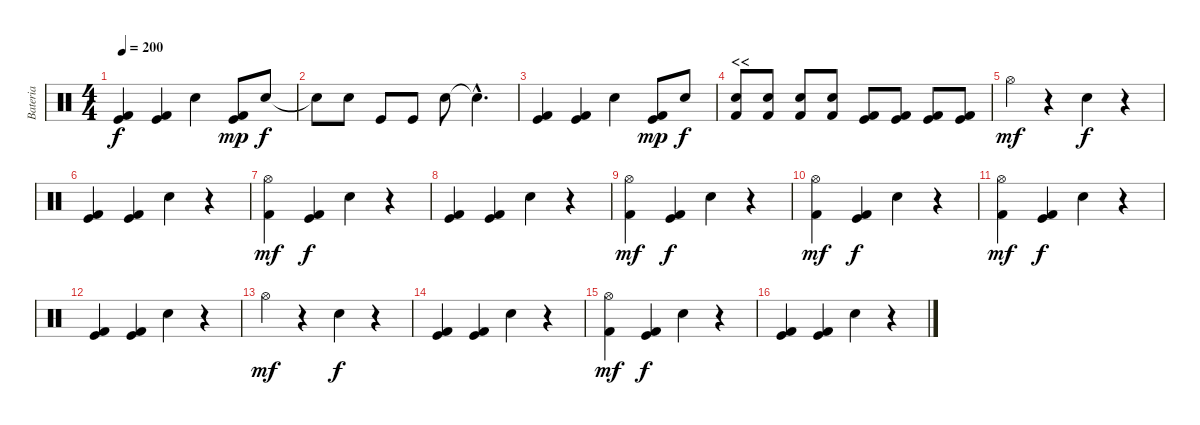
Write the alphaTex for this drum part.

\track ("Bateria" "Bateria") {instrument percussion}
\staff {score}
\articulation defaults
\ts (4 4)
\tempo 200
\clef neutral
\ks c
("Kick (hit) 2" "Kick (hit)").4{dy f} ("Kick (hit) 2" "Kick (hit)").4 "Electric Snare (hit)".4 ("Kick (hit)" "Kick (hit) 2").8{dy mp} "Electric Snare (hit)".8{dy f} |
"Snare (hit)"{t}.8 "Electric Snare (hit)".8 "Kick (hit)".8 "Kick (hit)".8 "Electric Snare (hit)".8 "Snare (hit)"{hac t}.4{d} |
("Kick (hit) 2" "Kick (hit)").4 ("Kick (hit) 2" "Kick (hit)").4 "Electric Snare (hit)".4 ("Kick (hit)" "Kick (hit) 2").8{dy mp} "Electric Snare (hit)".8{dy f} |
\section ("" "<<")
("Electric Snare (hit)" "Kick (hit) 2").8 ("Electric Snare (hit)" "Kick (hit) 2").8 ("Electric Snare (hit)" "Kick (hit) 2").8 ("Electric Snare (hit)" "Kick (hit) 2").8 ("Kick (hit)" "Kick (hit) 2").8 ("Kick (hit)" "Kick (hit) 2").8 ("Kick (hit)" "Kick (hit) 2").8 ("Kick (hit)" "Kick (hit) 2").8 |
"Hi-Hat (open)".4{dy mf} r.4 "Electric Snare (hit)".4{dy f} r.4 |
("Kick (hit)" "Kick (hit) 2").4 ("Kick (hit)" "Kick (hit) 2").4 "Electric Snare (hit)".4 r.4 |
("Hi-Hat (open)" "Kick (hit) 2").4{dy mf} ("Kick (hit)" "Kick (hit) 2").4{dy f} "Electric Snare (hit)".4 r.4 |
("Kick (hit)" "Kick (hit) 2").4 ("Kick (hit)" "Kick (hit) 2").4 "Electric Snare (hit)".4 r.4 |
("Hi-Hat (open)" "Kick (hit) 2").4{dy mf} ("Kick (hit)" "Kick (hit) 2").4{dy f} "Electric Snare (hit)".4 r.4 |
("Hi-Hat (open)" "Kick (hit) 2").4{dy mf} ("Kick (hit)" "Kick (hit) 2").4{dy f} "Electric Snare (hit)".4 r.4 |
("Hi-Hat (open)" "Kick (hit) 2").4{dy mf} ("Kick (hit)" "Kick (hit) 2").4{dy f} "Electric Snare (hit)".4 r.4 |
("Kick (hit)" "Kick (hit) 2").4 ("Kick (hit)" "Kick (hit) 2").4 "Electric Snare (hit)".4 r.4 |
"Hi-Hat (open)".4{dy mf} r.4 "Electric Snare (hit)".4{dy f} r.4 |
("Kick (hit)" "Kick (hit) 2").4 ("Kick (hit)" "Kick (hit) 2").4 "Electric Snare (hit)".4 r.4 |
("Hi-Hat (open)" "Kick (hit) 2").4{dy mf} ("Kick (hit)" "Kick (hit) 2").4{dy f} "Electric Snare (hit)".4 r.4 |
("Kick (hit)" "Kick (hit) 2").4 ("Kick (hit)" "Kick (hit) 2").4 "Electric Snare (hit)".4 r.4
